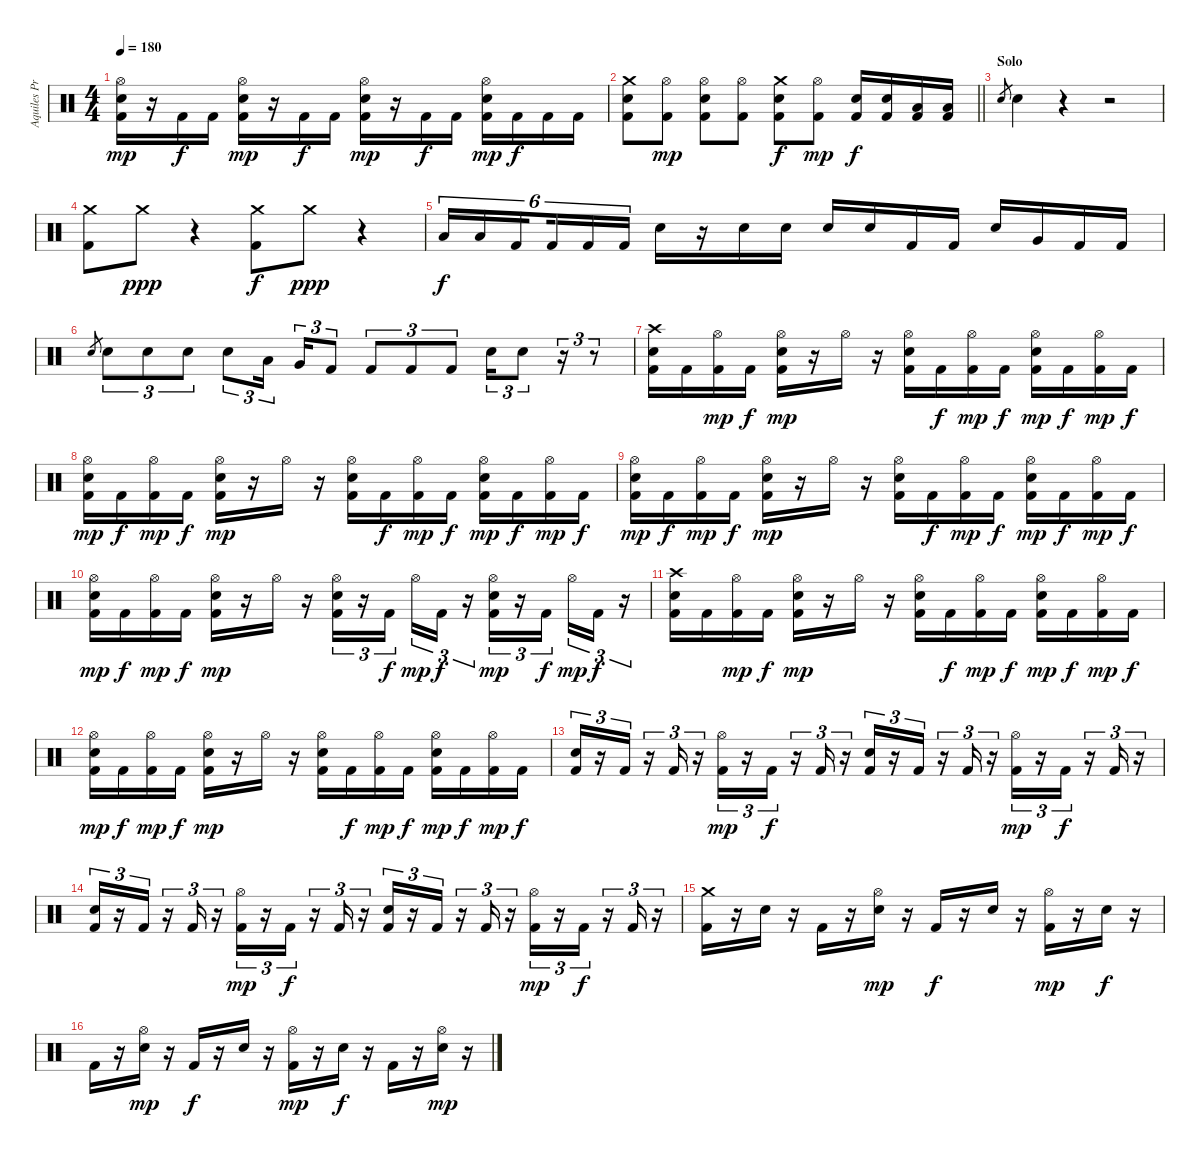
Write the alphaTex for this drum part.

\track ("Aquiles Priester" "Aquiles Pr") {instrument percussion}
\staff {score}
\articulation defaults
\ts (4 4)
\tempo 180
\clef neutral
\ks c
("Hi-Hat (open)" "Snare (hit) 2" "Kick (hit) 2").16{dy mp} r.16 "Kick (hit) 2".16{dy f} "Kick (hit) 2".16 ("Hi-Hat (open)" "Snare (hit) 2" "Kick (hit) 2").16{dy mp} r.16 "Kick (hit) 2".16{dy f} "Kick (hit) 2".16 ("Hi-Hat (open)" "Snare (hit) 2" "Kick (hit) 2").16{dy mp} r.16 "Kick (hit) 2".16{dy f} "Kick (hit) 2".16 ("Hi-Hat (open)" "Snare (hit) 2" "Kick (hit) 2").16{dy mp} "Kick (hit) 2".16{dy f} "Kick (hit) 2".16 "Kick (hit) 2".16 |
\barLineRight lightlight
("Crash medium (hit)" "Snare (hit) 2" "Kick (hit) 2").8 ("Hi-Hat (open)" "Kick (hit) 2").8{dy mp} ("Hi-Hat (open)" "Snare (hit) 2" "Kick (hit) 2").8 ("Hi-Hat (open)" "Kick (hit) 2").8 ("Crash medium (hit)" "Snare (hit) 2" "Kick (hit) 2").8{dy f} ("Hi-Hat (open)" "Kick (hit) 2").8{dy mp} ("Snare (hit) 2" "Kick (hit) 2").16{dy f} ("Snare (hit) 2" "Kick (hit) 2").16 ("Low Tom (hit)" "Kick (hit) 2").16 ("Low Tom (hit)" "Kick (hit) 2").16 |
\section ("" "Solo")
"Snare (hit) 2".8{gr} "Snare (hit) 2".4 r.4 r.2 |
("Crash medium (hit)" "Kick (hit) 2").8 "Crash medium (hit)".8{dy ppp} r.4 ("Crash medium (hit)" "Kick (hit) 2").8{dy f} "Crash medium (hit)".8{dy ppp} r.4 |
"Low Tom (hit)".16{tu (6 4) dy f} "Low Tom (hit)".16{tu (6 4)} "Kick (hit) 2".16{tu (6 4) beam splitsecondary} "Kick (hit) 2".16{tu (6 4)} "Kick (hit) 2".16{tu (6 4)} "Kick (hit) 2".16{tu (6 4)} "Snare (hit) 2".16 r.16 "Snare (hit) 2".16 "Snare (hit) 2".16 "Snare (hit) 2".16 "Snare (hit) 2".16 "Kick (hit) 2".16 "Kick (hit) 2".16 "Snare (hit) 2".16 "Very Low Tom (hit)".16 "Kick (hit) 2".16 "Kick (hit) 2".16 |
"Snare (hit) 2".8{gr} "Snare (hit) 2".8{tu (3 2)} "Snare (hit) 2".8{tu (3 2)} "Snare (hit) 2".8{tu (3 2)} "Snare (hit) 2".8{tu (3 2)} "Low Tom (hit)".16{tu (3 2) beam splitsecondary} "Very Low Tom (hit)".16{tu (3 2)} "Kick (hit) 2".8{tu (3 2)} "Kick (hit) 2".8{tu (3 2)} "Kick (hit) 2".8{tu (3 2)} "Kick (hit) 2".8{tu (3 2)} "Snare (hit) 2".16{tu (3 2)} "Snare (hit) 2".8{tu (3 2)} r.16{tu (3 2)} r.8{tu (3 2)} |
("Crash high (hit)" "Snare (hit) 2" "Kick (hit) 2").16 "Kick (hit) 2".16 ("Hi-Hat (open)" "Kick (hit) 2").16{dy mp} "Kick (hit) 2".16{dy f} ("Hi-Hat (open)" "Snare (hit) 2" "Kick (hit) 2").16{dy mp} r.16 "Hi-Hat (open)".16 r.16 ("Hi-Hat (open)" "Snare (hit) 2" "Kick (hit) 2").16 "Kick (hit) 2".16{dy f} ("Hi-Hat (open)" "Kick (hit) 2").16{dy mp} "Kick (hit) 2".16{dy f} ("Hi-Hat (open)" "Snare (hit) 2" "Kick (hit) 2").16{dy mp} "Kick (hit) 2".16{dy f} ("Hi-Hat (open)" "Kick (hit) 2").16{dy mp} "Kick (hit) 2".16{dy f} |
("Hi-Hat (open)" "Snare (hit) 2" "Kick (hit) 2").16{dy mp} "Kick (hit) 2".16{dy f} ("Hi-Hat (open)" "Kick (hit) 2").16{dy mp} "Kick (hit) 2".16{dy f} ("Hi-Hat (open)" "Snare (hit) 2" "Kick (hit) 2").16{dy mp} r.16 "Hi-Hat (open)".16 r.16 ("Hi-Hat (open)" "Snare (hit) 2" "Kick (hit) 2").16 "Kick (hit) 2".16{dy f} ("Hi-Hat (open)" "Kick (hit) 2").16{dy mp} "Kick (hit) 2".16{dy f} ("Hi-Hat (open)" "Snare (hit) 2" "Kick (hit) 2").16{dy mp} "Kick (hit) 2".16{dy f} ("Hi-Hat (open)" "Kick (hit) 2").16{dy mp} "Kick (hit) 2".16{dy f} |
("Hi-Hat (open)" "Snare (hit) 2" "Kick (hit) 2").16{dy mp} "Kick (hit) 2".16{dy f} ("Hi-Hat (open)" "Kick (hit) 2").16{dy mp} "Kick (hit) 2".16{dy f} ("Hi-Hat (open)" "Snare (hit) 2" "Kick (hit) 2").16{dy mp} r.16 "Hi-Hat (open)".16 r.16 ("Hi-Hat (open)" "Snare (hit) 2" "Kick (hit) 2").16 "Kick (hit) 2".16{dy f} ("Hi-Hat (open)" "Kick (hit) 2").16{dy mp} "Kick (hit) 2".16{dy f} ("Hi-Hat (open)" "Snare (hit) 2" "Kick (hit) 2").16{dy mp} "Kick (hit) 2".16{dy f} ("Hi-Hat (open)" "Kick (hit) 2").16{dy mp} "Kick (hit) 2".16{dy f} |
("Hi-Hat (open)" "Snare (hit) 2" "Kick (hit) 2").16{dy mp} "Kick (hit) 2".16{dy f} ("Hi-Hat (open)" "Kick (hit) 2").16{dy mp} "Kick (hit) 2".16{dy f} ("Hi-Hat (open)" "Snare (hit) 2" "Kick (hit) 2").16{dy mp} r.16 "Hi-Hat (open)".16 r.16 ("Hi-Hat (open)" "Snare (hit) 2" "Kick (hit) 2").16{tu (3 2)} r.16{tu (3 2)} "Kick (hit) 2".16{tu (3 2) dy f beam splitsecondary} "Hi-Hat (open)".16{tu (3 2) dy mp} "Kick (hit) 2".16{tu (3 2) dy f} r.16{tu (3 2)} ("Hi-Hat (open)" "Snare (hit) 2" "Kick (hit) 2").16{tu (3 2) dy mp} r.16{tu (3 2)} "Kick (hit) 2".16{tu (3 2) dy f beam splitsecondary} "Hi-Hat (open)".16{tu (3 2) dy mp} "Kick (hit) 2".16{tu (3 2) dy f} r.16{tu (3 2)} |
("Crash high (hit)" "Snare (hit) 2" "Kick (hit) 2").16 "Kick (hit) 2".16 ("Hi-Hat (open)" "Kick (hit) 2").16{dy mp} "Kick (hit) 2".16{dy f} ("Hi-Hat (open)" "Snare (hit) 2" "Kick (hit) 2").16{dy mp} r.16 "Hi-Hat (open)".16 r.16 ("Hi-Hat (open)" "Snare (hit) 2" "Kick (hit) 2").16 "Kick (hit) 2".16{dy f} ("Hi-Hat (open)" "Kick (hit) 2").16{dy mp} "Kick (hit) 2".16{dy f} ("Hi-Hat (open)" "Snare (hit) 2" "Kick (hit) 2").16{dy mp} "Kick (hit) 2".16{dy f} ("Hi-Hat (open)" "Kick (hit) 2").16{dy mp} "Kick (hit) 2".16{dy f} |
("Hi-Hat (open)" "Snare (hit) 2" "Kick (hit) 2").16{dy mp} "Kick (hit) 2".16{dy f} ("Hi-Hat (open)" "Kick (hit) 2").16{dy mp} "Kick (hit) 2".16{dy f} ("Hi-Hat (open)" "Snare (hit) 2" "Kick (hit) 2").16{dy mp} r.16 "Hi-Hat (open)".16 r.16 ("Hi-Hat (open)" "Snare (hit) 2" "Kick (hit) 2").16 "Kick (hit) 2".16{dy f} ("Hi-Hat (open)" "Kick (hit) 2").16{dy mp} "Kick (hit) 2".16{dy f} ("Hi-Hat (open)" "Snare (hit) 2" "Kick (hit) 2").16{dy mp} "Kick (hit) 2".16{dy f} ("Hi-Hat (open)" "Kick (hit) 2").16{dy mp} "Kick (hit) 2".16{dy f} |
("Snare (hit) 2" "Kick (hit) 2").16{tu (3 2)} r.16{tu (3 2)} "Kick (hit) 2".16{tu (3 2)} r.16{tu (3 2)} "Kick (hit) 2".16{tu (3 2)} r.16{tu (3 2)} ("Hi-Hat (open)" "Kick (hit) 2").16{tu (3 2) dy mp} r.16{tu (3 2)} "Kick (hit) 2".16{tu (3 2) dy f} r.16{tu (3 2)} "Kick (hit) 2".16{tu (3 2)} r.16{tu (3 2)} ("Snare (hit) 2" "Kick (hit) 2").16{tu (3 2)} r.16{tu (3 2)} "Kick (hit) 2".16{tu (3 2)} r.16{tu (3 2)} "Kick (hit) 2".16{tu (3 2)} r.16{tu (3 2)} ("Hi-Hat (open)" "Kick (hit) 2").16{tu (3 2) dy mp} r.16{tu (3 2)} "Kick (hit) 2".16{tu (3 2) dy f} r.16{tu (3 2)} "Kick (hit) 2".16{tu (3 2)} r.16{tu (3 2)} |
("Snare (hit) 2" "Kick (hit) 2").16{tu (3 2)} r.16{tu (3 2)} "Kick (hit) 2".16{tu (3 2)} r.16{tu (3 2)} "Kick (hit) 2".16{tu (3 2)} r.16{tu (3 2)} ("Hi-Hat (open)" "Kick (hit) 2").16{tu (3 2) dy mp} r.16{tu (3 2)} "Kick (hit) 2".16{tu (3 2) dy f} r.16{tu (3 2)} "Kick (hit) 2".16{tu (3 2)} r.16{tu (3 2)} ("Snare (hit) 2" "Kick (hit) 2").16{tu (3 2)} r.16{tu (3 2)} "Kick (hit) 2".16{tu (3 2)} r.16{tu (3 2)} "Kick (hit) 2".16{tu (3 2)} r.16{tu (3 2)} ("Hi-Hat (open)" "Kick (hit) 2").16{tu (3 2) dy mp} r.16{tu (3 2)} "Kick (hit) 2".16{tu (3 2) dy f} r.16{tu (3 2)} "Kick (hit) 2".16{tu (3 2)} r.16{tu (3 2)} |
("Crash medium (hit)" "Kick (hit) 2").16 r.16 "Snare (hit) 2".16 r.16 "Kick (hit) 2".16 r.16 ("Hi-Hat (open)" "Snare (hit) 2").16{dy mp} r.16 "Kick (hit) 2".16{dy f} r.16 "Snare (hit) 2".16 r.16 ("Hi-Hat (open)" "Kick (hit) 2").16{dy mp} r.16 "Snare (hit) 2".16{dy f} r.16 |
"Kick (hit) 2".16 r.16 ("Hi-Hat (open)" "Snare (hit) 2").16{dy mp} r.16 "Kick (hit) 2".16{dy f} r.16 "Snare (hit) 2".16 r.16 ("Hi-Hat (open)" "Kick (hit) 2").16{dy mp} r.16 "Snare (hit) 2".16{dy f} r.16 "Kick (hit) 2".16 r.16 ("Hi-Hat (open)" "Snare (hit) 2").16{dy mp} r.16
